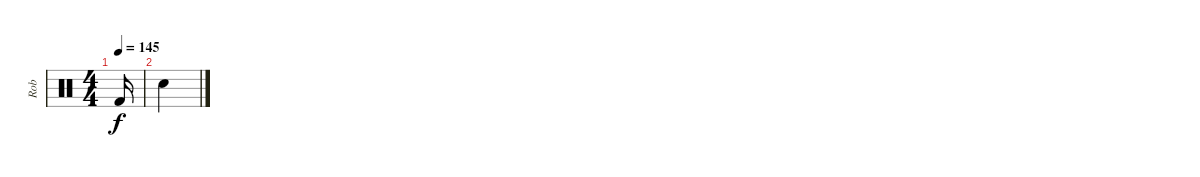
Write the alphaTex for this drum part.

\track ("Rob" "Rob") {instrument percussion}
\staff {score}
\articulation defaults
\ts (4 4)
\tempo 145
\clef neutral
\ks c "Kick (hit) 2".16{dy f}
|
"Snare (hit)".4
